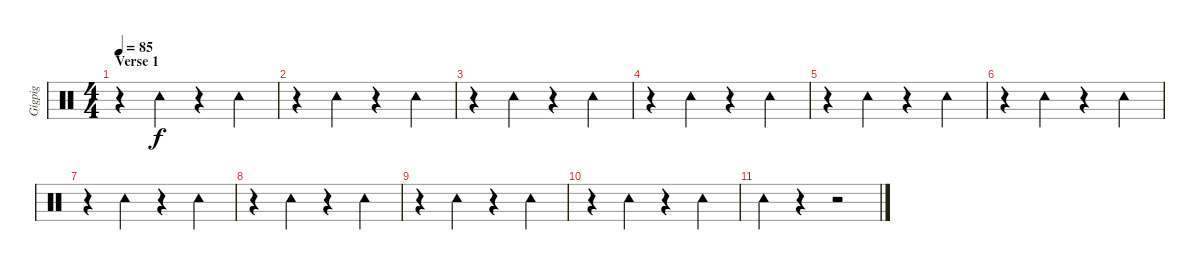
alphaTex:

\track ("Gigpig" "Gigpig") {instrument percussion}
\staff {score}
\articulation defaults
\ts (4 4)
\section ("" "Verse 1")
\tempo 85
\clef neutral
\ks c
r.4{dy f} "Tambourine (hit)".4 r.4 "Tambourine (hit)".4 |
r.4 "Tambourine (hit)".4 r.4 "Tambourine (hit)".4 |
r.4 "Tambourine (hit)".4 r.4 "Tambourine (hit)".4 |
r.4 "Tambourine (hit)".4 r.4 "Tambourine (hit)".4 |
r.4 "Tambourine (hit)".4 r.4 "Tambourine (hit)".4 |
r.4 "Tambourine (hit)".4 r.4 "Tambourine (hit)".4 |
r.4 "Tambourine (hit)".4 r.4 "Tambourine (hit)".4 |
r.4 "Tambourine (hit)".4 r.4 "Tambourine (hit)".4 |
r.4 "Tambourine (hit)".4 r.4 "Tambourine (hit)".4 |
r.4 "Tambourine (hit)".4 r.4 "Tambourine (hit)".4 |
"Tambourine (hit)".4 r.4 r.2
